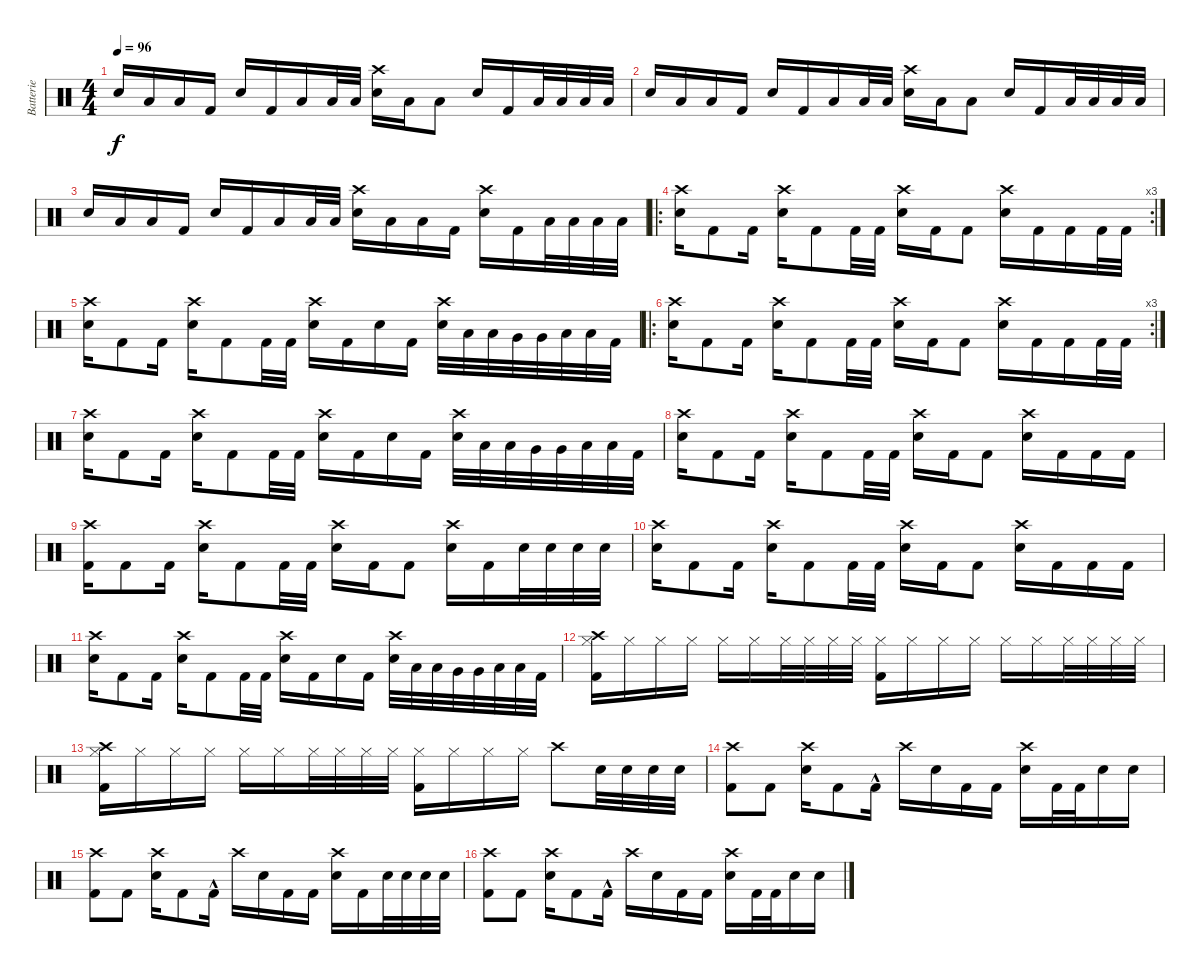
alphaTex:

\track ("Batterie" "Batterie") {instrument percussion}
\staff {score}
\articulation defaults
\ts (4 4)
\tempo 96
\clef neutral
\ks c "Snare (hit) 2".16{dy f} "Low Floor Tom (hit)".16 "Low Floor Tom (hit)".16 "Kick (hit) 2".16 "Snare (hit) 2".16 "Kick (hit) 2".16 "Low Floor Tom (hit)".16 "Low Floor Tom (hit)".32 "Low Floor Tom (hit)".32
("Crash high (hit)" "Snare (hit) 2").16 "Low Floor Tom (hit)".16 "Low Floor Tom (hit)".8 "Snare (hit) 2".16 "Kick (hit) 2".16 "Low Floor Tom (hit)".32 "Low Floor Tom (hit)".32 "Low Floor Tom (hit)".32 "Low Floor Tom (hit)".32 |
"Snare (hit) 2".16 "Low Floor Tom (hit)".16 "Low Floor Tom (hit)".16 "Kick (hit) 2".16 "Snare (hit) 2".16 "Kick (hit) 2".16 "Low Floor Tom (hit)".16 "Low Floor Tom (hit)".32 "Low Floor Tom (hit)".32 ("Crash high (hit)" "Snare (hit) 2").16 "Low Floor Tom (hit)".16 "Low Floor Tom (hit)".8 "Snare (hit) 2".16 "Kick (hit) 2".16 "Low Floor Tom (hit)".32 "Low Floor Tom (hit)".32 "Low Floor Tom (hit)".32 "Low Floor Tom (hit)".32 |
"Snare (hit) 2".16 "Low Floor Tom (hit)".16 "Low Floor Tom (hit)".16 "Kick (hit) 2".16 "Snare (hit) 2".16 "Kick (hit) 2".16 "Low Floor Tom (hit)".16 "Low Floor Tom (hit)".32 "Low Floor Tom (hit)".32 ("Crash high (hit)" "Snare (hit) 2").16 "Low Floor Tom (hit)".16 "Low Floor Tom (hit)".16 "Kick (hit) 2".16 ("Crash high (hit)" "Snare (hit) 2").16 "Kick (hit) 2".16 "Low Floor Tom (hit)".32 "Low Floor Tom (hit)".32 "Low Floor Tom (hit)".32 "Low Floor Tom (hit)".32 |
\ro
\rc 3
("Crash high (hit)" "Snare (hit) 2").16 "Kick (hit) 2".8 "Kick (hit) 2".16 ("Crash high (hit)" "Snare (hit) 2").16 "Kick (hit) 2".8 "Kick (hit) 2".32 "Kick (hit) 2".32 ("Crash high (hit)" "Snare (hit) 2").16 "Kick (hit) 2".16 "Kick (hit) 2".8 ("Crash high (hit)" "Snare (hit) 2").16 "Kick (hit) 2".16 "Kick (hit) 2".16 "Kick (hit) 2".32 "Kick (hit) 2".32 |
("Crash high (hit)" "Snare (hit) 2").16 "Kick (hit) 2".8 "Kick (hit) 2".16 ("Crash high (hit)" "Snare (hit) 2").16 "Kick (hit) 2".8 "Kick (hit) 2".32 "Kick (hit) 2".32 ("Crash high (hit)" "Snare (hit) 2").16 "Kick (hit) 2".16 "Snare (hit) 2".16 "Kick (hit) 2".16 ("Crash high (hit)" "Snare (hit) 2").32 "Low Tom (hit)".32 "Low Tom (hit)".32 "Very Low Tom (hit)".32 "Very Low Tom (hit)".32 "Low Floor Tom (hit)".32 "Low Floor Tom (hit)".32 "Kick (hit) 2".32 |
\ro
\rc 3
("Crash high (hit)" "Snare (hit) 2").16 "Kick (hit) 2".8 "Kick (hit) 2".16 ("Crash high (hit)" "Snare (hit) 2").16 "Kick (hit) 2".8 "Kick (hit) 2".32 "Kick (hit) 2".32 ("Crash high (hit)" "Snare (hit) 2").16 "Kick (hit) 2".16 "Kick (hit) 2".8 ("Crash high (hit)" "Snare (hit) 2").16 "Kick (hit) 2".16 "Kick (hit) 2".16 "Kick (hit) 2".32 "Kick (hit) 2".32 |
("Crash high (hit)" "Snare (hit) 2").16 "Kick (hit) 2".8 "Kick (hit) 2".16 ("Crash high (hit)" "Snare (hit) 2").16 "Kick (hit) 2".8 "Kick (hit) 2".32 "Kick (hit) 2".32 ("Crash high (hit)" "Snare (hit) 2").16 "Kick (hit) 2".16 "Snare (hit) 2".16 "Kick (hit) 2".16 ("Crash high (hit)" "Snare (hit) 2").32 "Low Tom (hit)".32 "Low Tom (hit)".32 "Very Low Tom (hit)".32 "Very Low Tom (hit)".32 "Low Floor Tom (hit)".32 "Low Floor Tom (hit)".32 "Kick (hit) 2".32 |
("Crash high (hit)" "Snare (hit) 2").16 "Kick (hit) 2".8 "Kick (hit) 2".16 ("Crash high (hit)" "Snare (hit) 2").16 "Kick (hit) 2".8 "Kick (hit) 2".32 "Kick (hit) 2".32 ("Crash high (hit)" "Snare (hit) 2").16 "Kick (hit) 2".16 "Kick (hit) 2".8 ("Crash high (hit)" "Snare (hit) 2").16 "Kick (hit) 2".16 "Kick (hit) 2".16 "Kick (hit) 2".16 |
("Crash high (hit)" "Kick (hit) 2").16 "Kick (hit) 2".8 "Kick (hit) 2".16 ("Crash high (hit)" "Snare (hit) 2").16 "Kick (hit) 2".8 "Kick (hit) 2".32 "Kick (hit) 2".32 ("Crash high (hit)" "Snare (hit) 2").16 "Kick (hit) 2".16 "Kick (hit) 2".8 ("Crash high (hit)" "Snare (hit) 2").16 "Kick (hit) 2".16 "Snare (hit) 2".32 "Snare (hit) 2".32 "Snare (hit) 2".32 "Snare (hit) 2".32 |
("Crash high (hit)" "Snare (hit) 2").16 "Kick (hit) 2".8 "Kick (hit) 2".16 ("Crash high (hit)" "Snare (hit) 2").16 "Kick (hit) 2".8 "Kick (hit) 2".32 "Kick (hit) 2".32 ("Crash high (hit)" "Snare (hit) 2").16 "Kick (hit) 2".16 "Kick (hit) 2".8 ("Crash high (hit)" "Snare (hit) 2").16 "Kick (hit) 2".16 "Kick (hit) 2".16 "Kick (hit) 2".16 |
("Crash high (hit)" "Snare (hit) 2").16 "Kick (hit) 2".8 "Kick (hit) 2".16 ("Crash high (hit)" "Snare (hit) 2").16 "Kick (hit) 2".8 "Kick (hit) 2".32 "Kick (hit) 2".32 ("Crash high (hit)" "Snare (hit) 2").16 "Kick (hit) 2".16 "Snare (hit) 2".16 "Kick (hit) 2".16 ("Crash high (hit)" "Snare (hit) 2").32 "Low Tom (hit)".32 "Low Tom (hit)".32 "Very Low Tom (hit)".32 "Very Low Tom (hit)".32 "Low Floor Tom (hit)".32 "Low Floor Tom (hit)".32 "Kick (hit) 2".32 |
("Hi-Hat (closed)" "Crash high (hit)" "Kick (hit) 2").16 "Hi-Hat (closed)".16 "Hi-Hat (closed)".16 "Hi-Hat (closed)".16 "Hi-Hat (closed)".16 "Hi-Hat (closed)".16 "Hi-Hat (closed)".32 "Hi-Hat (closed)".32 "Hi-Hat (closed)".32 "Hi-Hat (closed)".32 ("Hi-Hat (closed)" "Kick (hit) 2").16 "Hi-Hat (closed)".16 "Hi-Hat (closed)".16 "Hi-Hat (closed)".16 "Hi-Hat (closed)".16 "Hi-Hat (closed)".16 "Hi-Hat (closed)".32 "Hi-Hat (closed)".32 "Hi-Hat (closed)".32 "Hi-Hat (closed)".32 |
("Hi-Hat (closed)" "Crash high (hit)" "Kick (hit) 2").16 "Hi-Hat (closed)".16 "Hi-Hat (closed)".16 "Hi-Hat (closed)".16 "Hi-Hat (closed)".16 "Hi-Hat (closed)".16 "Hi-Hat (closed)".32 "Hi-Hat (closed)".32 "Hi-Hat (closed)".32 "Hi-Hat (closed)".32 ("Hi-Hat (closed)" "Kick (hit) 2").16 "Hi-Hat (closed)".16 "Hi-Hat (closed)".16 "Hi-Hat (closed)".16 "Crash high (hit)".8 "Snare (hit) 2".32 "Snare (hit) 2".32 "Snare (hit) 2".32 "Snare (hit) 2".32 |
("Crash high (hit)" "Kick (hit) 2").8 "Kick (hit) 2".8 ("Crash high (hit)" "Snare (hit) 2").16 "Kick (hit) 2".8 "Kick (hit) 2"{hac}.16 "Crash high (hit)".16 "Snare (hit) 2".16 "Kick (hit) 2".16 "Kick (hit) 2".16 ("Crash high (hit)" "Snare (hit) 2").16 "Kick (hit) 2".32 "Kick (hit) 2".32 "Snare (hit) 2".16 "Snare (hit) 2".16 |
("Crash high (hit)" "Kick (hit) 2").8 "Kick (hit) 2".8 ("Crash high (hit)" "Snare (hit) 2").16 "Kick (hit) 2".8 "Kick (hit) 2"{hac}.16 "Crash high (hit)".16 "Snare (hit) 2".16 "Kick (hit) 2".16 "Kick (hit) 2".16 ("Crash high (hit)" "Snare (hit) 2").16 "Kick (hit) 2".16 "Snare (hit) 2".32 "Snare (hit) 2".32 "Snare (hit) 2".32 "Snare (hit) 2".32 |
("Crash high (hit)" "Kick (hit) 2").8 "Kick (hit) 2".8 ("Crash high (hit)" "Snare (hit) 2").16 "Kick (hit) 2".8 "Kick (hit) 2"{hac}.16 "Crash high (hit)".16 "Snare (hit) 2".16 "Kick (hit) 2".16 "Kick (hit) 2".16 ("Crash high (hit)" "Snare (hit) 2").16 "Kick (hit) 2".32 "Kick (hit) 2".32 "Snare (hit) 2".16 "Snare (hit) 2".16
